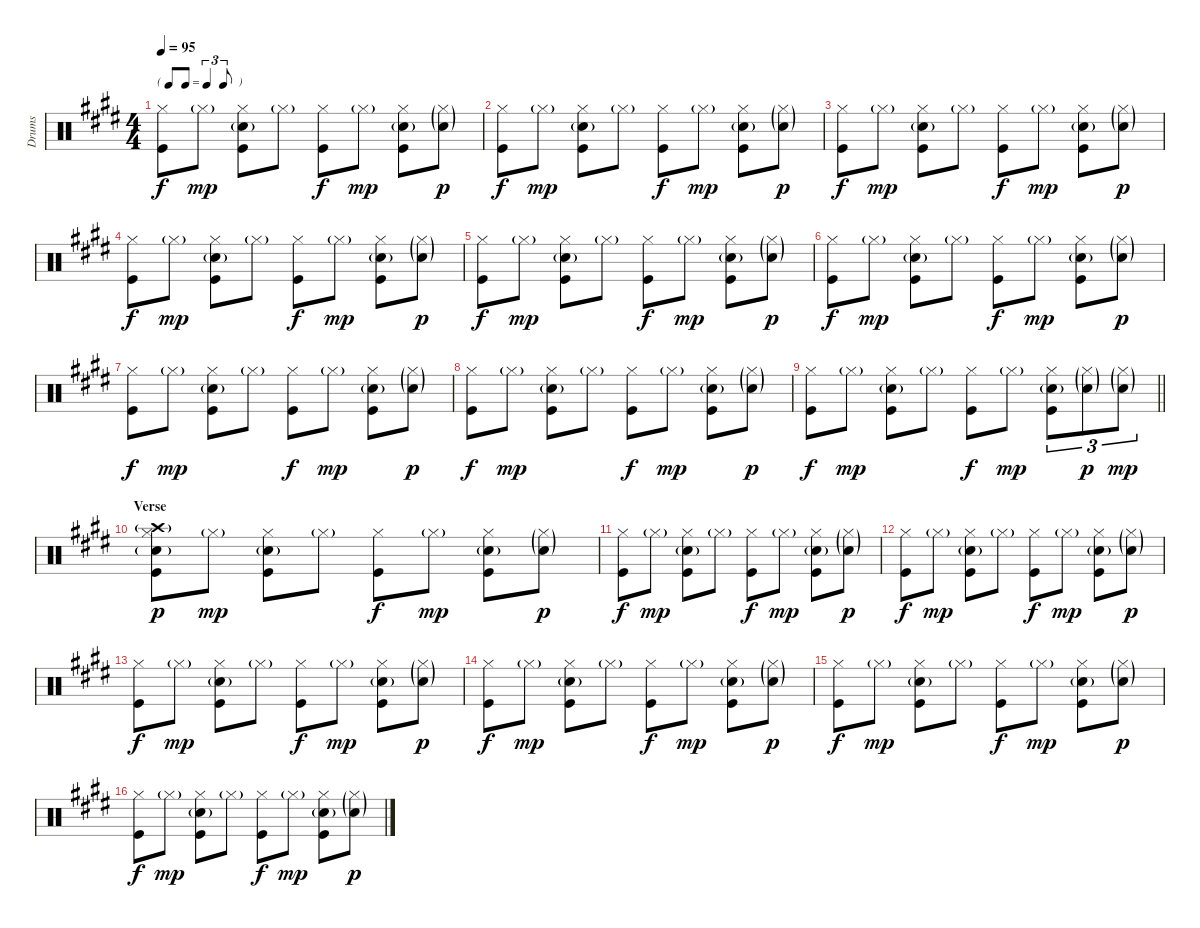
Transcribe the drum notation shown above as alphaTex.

\track ("Drums" "Drums") {instrument percussion}
\staff {score}
\articulation defaults
\ts (4 4)
\tf triplet8th
\tempo 95
\clef neutral
\ks e
("Hi-Hat (closed)" "Kick (hit)").8{dy f} "Hi-Hat (closed)"{g}.8{dy mp} ("Hi-Hat (closed)" "Snare (hit) 2"{g} "Kick (hit)").8 "Hi-Hat (closed)"{g}.8 ("Hi-Hat (closed)" "Kick (hit)").8{dy f} "Hi-Hat (closed)"{g}.8{dy mp} ("Hi-Hat (closed)" "Snare (hit) 2"{g} "Kick (hit)").8 ("Hi-Hat (closed)"{g} "Snare (hit) 2"{g}).8{dy p} |
("Hi-Hat (closed)" "Kick (hit)").8{dy f} "Hi-Hat (closed)"{g}.8{dy mp} ("Hi-Hat (closed)" "Snare (hit) 2"{g} "Kick (hit)").8 "Hi-Hat (closed)"{g}.8 ("Hi-Hat (closed)" "Kick (hit)").8{dy f} "Hi-Hat (closed)"{g}.8{dy mp} ("Hi-Hat (closed)" "Snare (hit) 2"{g} "Kick (hit)").8 ("Hi-Hat (closed)"{g} "Snare (hit) 2"{g}).8{dy p} |
("Hi-Hat (closed)" "Kick (hit)").8{dy f} "Hi-Hat (closed)"{g}.8{dy mp} ("Hi-Hat (closed)" "Snare (hit) 2"{g} "Kick (hit)").8 "Hi-Hat (closed)"{g}.8 ("Hi-Hat (closed)" "Kick (hit)").8{dy f} "Hi-Hat (closed)"{g}.8{dy mp} ("Hi-Hat (closed)" "Snare (hit) 2"{g} "Kick (hit)").8 ("Hi-Hat (closed)"{g} "Snare (hit) 2"{g}).8{dy p} |
("Hi-Hat (closed)" "Kick (hit)").8{dy f} "Hi-Hat (closed)"{g}.8{dy mp} ("Hi-Hat (closed)" "Snare (hit) 2"{g} "Kick (hit)").8 "Hi-Hat (closed)"{g}.8 ("Hi-Hat (closed)" "Kick (hit)").8{dy f} "Hi-Hat (closed)"{g}.8{dy mp} ("Hi-Hat (closed)" "Snare (hit) 2"{g} "Kick (hit)").8 ("Hi-Hat (closed)"{g} "Snare (hit) 2"{g}).8{dy p} |
("Hi-Hat (closed)" "Kick (hit)").8{dy f} "Hi-Hat (closed)"{g}.8{dy mp} ("Hi-Hat (closed)" "Snare (hit) 2"{g} "Kick (hit)").8 "Hi-Hat (closed)"{g}.8 ("Hi-Hat (closed)" "Kick (hit)").8{dy f} "Hi-Hat (closed)"{g}.8{dy mp} ("Hi-Hat (closed)" "Snare (hit) 2"{g} "Kick (hit)").8 ("Hi-Hat (closed)"{g} "Snare (hit) 2"{g}).8{dy p} |
("Hi-Hat (closed)" "Kick (hit)").8{dy f} "Hi-Hat (closed)"{g}.8{dy mp} ("Hi-Hat (closed)" "Snare (hit) 2"{g} "Kick (hit)").8 "Hi-Hat (closed)"{g}.8 ("Hi-Hat (closed)" "Kick (hit)").8{dy f} "Hi-Hat (closed)"{g}.8{dy mp} ("Hi-Hat (closed)" "Snare (hit) 2"{g} "Kick (hit)").8 ("Hi-Hat (closed)"{g} "Snare (hit) 2"{g}).8{dy p} |
("Hi-Hat (closed)" "Kick (hit)").8{dy f} "Hi-Hat (closed)"{g}.8{dy mp} ("Hi-Hat (closed)" "Snare (hit) 2"{g} "Kick (hit)").8 "Hi-Hat (closed)"{g}.8 ("Hi-Hat (closed)" "Kick (hit)").8{dy f} "Hi-Hat (closed)"{g}.8{dy mp} ("Hi-Hat (closed)" "Snare (hit) 2"{g} "Kick (hit)").8 ("Hi-Hat (closed)"{g} "Snare (hit) 2"{g}).8{dy p} |
("Hi-Hat (closed)" "Kick (hit)").8{dy f} "Hi-Hat (closed)"{g}.8{dy mp} ("Hi-Hat (closed)" "Snare (hit) 2"{g} "Kick (hit)").8 "Hi-Hat (closed)"{g}.8 ("Hi-Hat (closed)" "Kick (hit)").8{dy f} "Hi-Hat (closed)"{g}.8{dy mp} ("Hi-Hat (closed)" "Snare (hit) 2"{g} "Kick (hit)").8 ("Hi-Hat (closed)"{g} "Snare (hit) 2"{g}).8{dy p} |
\barLineRight lightlight
("Hi-Hat (closed)" "Kick (hit)").8{dy f} "Hi-Hat (closed)"{g}.8{dy mp} ("Hi-Hat (closed)" "Snare (hit) 2"{g} "Kick (hit)").8 "Hi-Hat (closed)"{g}.8 ("Hi-Hat (closed)" "Kick (hit)").8{dy f} "Hi-Hat (closed)"{g}.8{dy mp} ("Hi-Hat (closed)" "Snare (hit) 2"{g} "Kick (hit)").8{tu (3 2)} ("Hi-Hat (closed)"{g} "Snare (hit) 2"{g}).8{tu (3 2) dy p} ("Hi-Hat (closed)"{g} "Snare (hit) 2"{g}).8{tu (3 2) dy mp} |
\section ("" "Verse")
("Hi-Hat (closed)" "Crash high (hit)"{g} "Snare (hit) 2"{g} "Kick (hit)").8{dy p} "Hi-Hat (closed)"{g}.8{dy mp} ("Hi-Hat (closed)" "Snare (hit) 2"{g} "Kick (hit)").8 "Hi-Hat (closed)"{g}.8 ("Hi-Hat (closed)" "Kick (hit)").8{dy f} "Hi-Hat (closed)"{g}.8{dy mp} ("Hi-Hat (closed)" "Snare (hit) 2"{g} "Kick (hit)").8 ("Hi-Hat (closed)"{g} "Snare (hit) 2"{g}).8{dy p} |
("Hi-Hat (closed)" "Kick (hit)").8{dy f} "Hi-Hat (closed)"{g}.8{dy mp} ("Hi-Hat (closed)" "Snare (hit) 2"{g} "Kick (hit)").8 "Hi-Hat (closed)"{g}.8 ("Hi-Hat (closed)" "Kick (hit)").8{dy f} "Hi-Hat (closed)"{g}.8{dy mp} ("Hi-Hat (closed)" "Snare (hit) 2"{g} "Kick (hit)").8 ("Hi-Hat (closed)"{g} "Snare (hit) 2"{g}).8{dy p} |
("Hi-Hat (closed)" "Kick (hit)").8{dy f} "Hi-Hat (closed)"{g}.8{dy mp} ("Hi-Hat (closed)" "Snare (hit) 2"{g} "Kick (hit)").8 "Hi-Hat (closed)"{g}.8 ("Hi-Hat (closed)" "Kick (hit)").8{dy f} "Hi-Hat (closed)"{g}.8{dy mp} ("Hi-Hat (closed)" "Snare (hit) 2"{g} "Kick (hit)").8 ("Hi-Hat (closed)"{g} "Snare (hit) 2"{g}).8{dy p} |
("Hi-Hat (closed)" "Kick (hit)").8{dy f} "Hi-Hat (closed)"{g}.8{dy mp} ("Hi-Hat (closed)" "Snare (hit) 2"{g} "Kick (hit)").8 "Hi-Hat (closed)"{g}.8 ("Hi-Hat (closed)" "Kick (hit)").8{dy f} "Hi-Hat (closed)"{g}.8{dy mp} ("Hi-Hat (closed)" "Snare (hit) 2"{g} "Kick (hit)").8 ("Hi-Hat (closed)"{g} "Snare (hit) 2"{g}).8{dy p} |
("Hi-Hat (closed)" "Kick (hit)").8{dy f} "Hi-Hat (closed)"{g}.8{dy mp} ("Hi-Hat (closed)" "Snare (hit) 2"{g} "Kick (hit)").8 "Hi-Hat (closed)"{g}.8 ("Hi-Hat (closed)" "Kick (hit)").8{dy f} "Hi-Hat (closed)"{g}.8{dy mp} ("Hi-Hat (closed)" "Snare (hit) 2"{g} "Kick (hit)").8 ("Hi-Hat (closed)"{g} "Snare (hit) 2"{g}).8{dy p} |
("Hi-Hat (closed)" "Kick (hit)").8{dy f} "Hi-Hat (closed)"{g}.8{dy mp} ("Hi-Hat (closed)" "Snare (hit) 2"{g} "Kick (hit)").8 "Hi-Hat (closed)"{g}.8 ("Hi-Hat (closed)" "Kick (hit)").8{dy f} "Hi-Hat (closed)"{g}.8{dy mp} ("Hi-Hat (closed)" "Snare (hit) 2"{g} "Kick (hit)").8 ("Hi-Hat (closed)"{g} "Snare (hit) 2"{g}).8{dy p} |
("Hi-Hat (closed)" "Kick (hit)").8{dy f} "Hi-Hat (closed)"{g}.8{dy mp} ("Hi-Hat (closed)" "Snare (hit) 2"{g} "Kick (hit)").8 "Hi-Hat (closed)"{g}.8 ("Hi-Hat (closed)" "Kick (hit)").8{dy f} "Hi-Hat (closed)"{g}.8{dy mp} ("Hi-Hat (closed)" "Snare (hit) 2"{g} "Kick (hit)").8 ("Hi-Hat (closed)"{g} "Snare (hit) 2"{g}).8{dy p}
